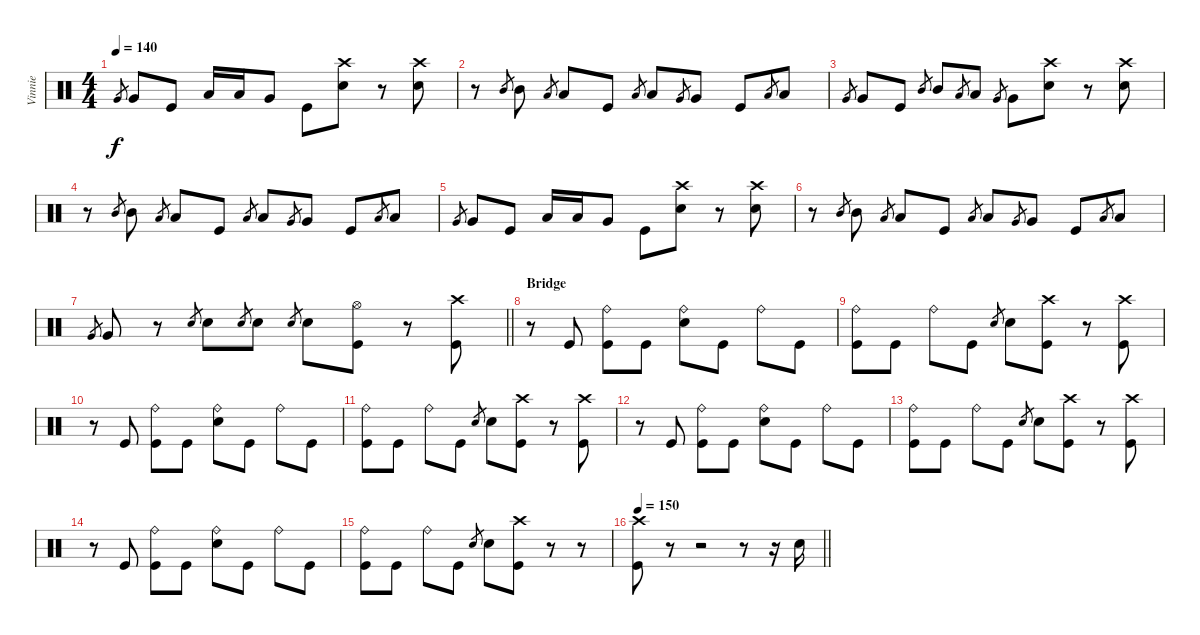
\track ("Vinnie" "Vinnie") {instrument percussion}
\staff {score}
\articulation defaults
\ts (4 4)
\tempo 140
\clef neutral
\ks c "Very Low Tom (hit)".8{gr dy f} "Very Low Tom (hit)".8 "Kick (hit)".8 "Low Tom (hit)".16 "Low Tom (hit)".16 "Very Low Tom (hit)".8 "Kick (hit)".8
("Crash high (hit)" "Electric Snare (hit)").8 r.8 ("Crash high (hit)" "Electric Snare (hit)").8 |
r.8 "Mid Tom (hit)".8{gr} "Mid Tom (hit)".8 "Low Tom (hit)".8{gr} "Low Tom (hit)".8 "Kick (hit)".8 "Low Tom (hit)".8{gr} "Low Tom (hit)".8 "Very Low Tom (hit)".8{gr} "Very Low Tom (hit)".8 "Kick (hit)".8 "Low Tom (hit)".8{gr} "Low Tom (hit)".8 |
"Very Low Tom (hit)".8{gr} "Very Low Tom (hit)".8 "Kick (hit)".8 "Mid Tom (hit)".8{gr} "Mid Tom (hit)".8 "Low Tom (hit)".8{gr} "Low Tom (hit)".8 "Very Low Tom (hit)".8{gr} "Very Low Tom (hit)".8 ("Crash high (hit)" "Electric Snare (hit)").8 r.8 ("Crash high (hit)" "Electric Snare (hit)").8 |
r.8 "Mid Tom (hit)".8{gr} "Mid Tom (hit)".8 "Low Tom (hit)".8{gr} "Low Tom (hit)".8 "Kick (hit)".8 "Low Tom (hit)".8{gr} "Low Tom (hit)".8 "Very Low Tom (hit)".8{gr} "Very Low Tom (hit)".8 "Kick (hit)".8 "Low Tom (hit)".8{gr} "Low Tom (hit)".8 |
"Very Low Tom (hit)".8{gr} "Very Low Tom (hit)".8 "Kick (hit)".8 "Low Tom (hit)".16 "Low Tom (hit)".16 "Very Low Tom (hit)".8 "Kick (hit)".8 ("Crash high (hit)" "Electric Snare (hit)").8 r.8 ("Crash high (hit)" "Electric Snare (hit)").8 |
r.8 "Mid Tom (hit)".8{gr} "Mid Tom (hit)".8 "Low Tom (hit)".8{gr} "Low Tom (hit)".8 "Kick (hit)".8 "Low Tom (hit)".8{gr} "Low Tom (hit)".8 "Very Low Tom (hit)".8{gr} "Very Low Tom (hit)".8 "Kick (hit)".8 "Low Tom (hit)".8{gr} "Low Tom (hit)".8 |
\barLineRight lightlight "Very Low Tom (hit)".8{gr} "Very Low Tom (hit)".8
r.8 "Electric Snare (hit)".8{gr} "Electric Snare (hit)".8 "Electric Snare (hit)".8{gr} "Electric Snare (hit)".8 "Electric Snare (hit)".8{gr} "Electric Snare (hit)".8 ("Hi-Hat (open)" "Kick (hit)").8 r.8 ("Crash high (hit)" "Kick (hit)").8 |
\section ("" "Bridge")
r.8 "Kick (hit)".8 ("Ride (bell)" "Kick (hit)").8 "Kick (hit)".8 ("Ride (bell)" "Electric Snare (hit)").8 "Kick (hit)".8 "Ride (bell)".8 "Kick (hit)".8 |
("Ride (bell)" "Kick (hit)").8 "Kick (hit)".8 "Ride (bell)".8 "Kick (hit)".8 "Electric Snare (hit)".8{gr} "Electric Snare (hit)".8 ("Crash high (hit)" "Kick (hit)").8 r.8 ("Crash high (hit)" "Kick (hit)").8 |
r.8 "Kick (hit)".8 ("Ride (bell)" "Kick (hit)").8 "Kick (hit)".8 ("Ride (bell)" "Electric Snare (hit)").8 "Kick (hit)".8 "Ride (bell)".8 "Kick (hit)".8 |
("Ride (bell)" "Kick (hit)").8 "Kick (hit)".8 "Ride (bell)".8 "Kick (hit)".8 "Electric Snare (hit)".8{gr} "Electric Snare (hit)".8 ("Crash high (hit)" "Kick (hit)").8 r.8 ("Crash high (hit)" "Kick (hit)").8 |
r.8 "Kick (hit)".8 ("Ride (bell)" "Kick (hit)").8 "Kick (hit)".8 ("Ride (bell)" "Electric Snare (hit)").8 "Kick (hit)".8 "Ride (bell)".8 "Kick (hit)".8 |
("Ride (bell)" "Kick (hit)").8 "Kick (hit)".8 "Ride (bell)".8 "Kick (hit)".8 "Electric Snare (hit)".8{gr} "Electric Snare (hit)".8 ("Crash high (hit)" "Kick (hit)").8 r.8 ("Crash high (hit)" "Kick (hit)").8 |
r.8 "Kick (hit)".8 ("Ride (bell)" "Kick (hit)").8 "Kick (hit)".8 ("Ride (bell)" "Electric Snare (hit)").8 "Kick (hit)".8 "Ride (bell)".8 "Kick (hit)".8 |
("Ride (bell)" "Kick (hit)").8 "Kick (hit)".8 "Ride (bell)".8 "Kick (hit)".8 "Electric Snare (hit)".8{gr} "Electric Snare (hit)".8 ("Crash high (hit)" "Kick (hit)").8 r.8 r.8 |
\tempo 150
\barLineRight lightlight
("Crash high (hit)" "Kick (hit)").8 r.8{volume 0} r.2 r.8 r.16 "Electric Snare (hit)".16{volume 16}
